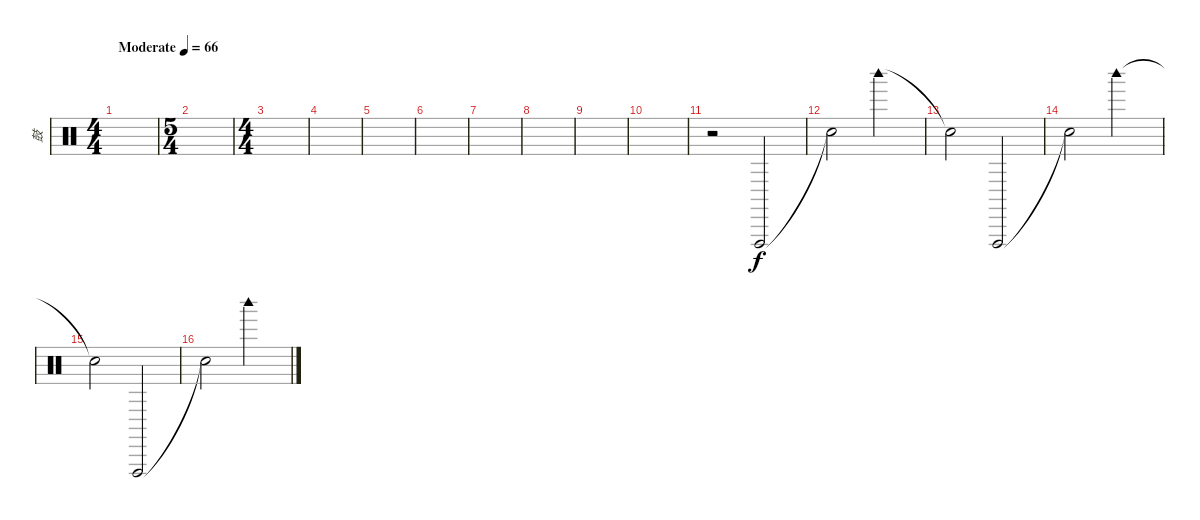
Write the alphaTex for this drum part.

\track ("鼓" "鼓") {instrument percussion}
\staff {score}
\articulation defaults
\ts (4 4)
\tempo (66 "Moderate")
\clef neutral
\ks c
|
\ts (5 4)
|
\ts (4 4)
|
|
|
|
|
|
|
|
r.2 "Vibraslap (hit)".2 |
"Snare (hit)"{t}.2 "Woodblock high (hit)".2 |
"Snare (hit)"{t}.2 "Vibraslap (hit)".2 |
"Snare (hit)"{t}.2 "Woodblock high (hit)".2 |
"Snare (hit)"{t}.2 "Vibraslap (hit)".2 |
"Snare (hit)"{t}.2 "Woodblock high (hit)".2
